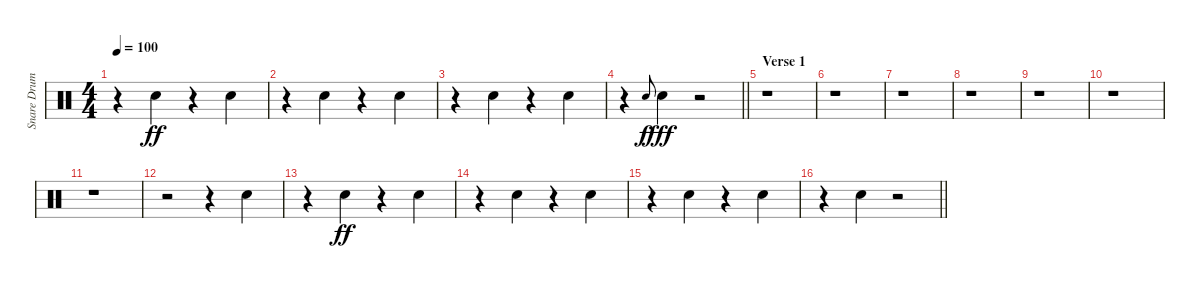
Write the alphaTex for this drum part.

\track ("Snare Drum" "Snare Drum") {instrument percussion}
\staff {score}
\articulation defaults
\ts (4 4)
\tempo 100
\clef neutral
\ks c
r.4{dy ff beam merge} "Electric Snare (hit)".4 r.4{beam merge} "Electric Snare (hit)".4 |
r.4{beam merge} "Electric Snare (hit)".4 r.4{beam merge} "Electric Snare (hit)".4 |
r.4{beam merge} "Electric Snare (hit)".4 r.4{beam merge} "Electric Snare (hit)".4 |
\barLineRight lightlight
r.4 "Electric Snare (hit)".8{gr onbeat dy f} "Electric Snare (hit)".4{dy fff} r.2 |
\section ("" "Verse 1")
r.1 |
r.1 |
r.1 |
r.1 |
r.1 |
r.1 |
r.1 |
r.2 r.4 "Electric Snare (hit)".4 |
r.4{beam merge} "Electric Snare (hit)".4{dy ff} r.4{beam merge} "Electric Snare (hit)".4 |
r.4{beam merge} "Electric Snare (hit)".4 r.4{beam merge} "Electric Snare (hit)".4 |
r.4{beam merge} "Electric Snare (hit)".4 r.4{beam merge} "Electric Snare (hit)".4 |
\barLineRight lightlight
r.4{beam merge} "Electric Snare (hit)".4 r.2
